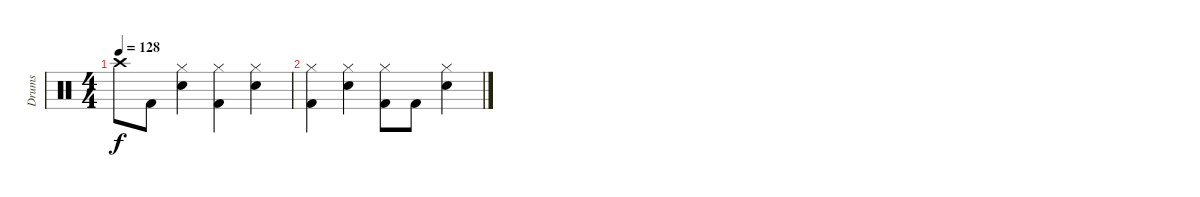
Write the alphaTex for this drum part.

\track ("Drums" "Drums") {instrument percussion}
\staff {score}
\articulation defaults
\ts (4 4)
\tempo 128
\clef neutral
\ks c "Crash high (hit)".8{dy f} "Kick (hit) 2".8
("Hi-Hat (closed)" "Electric Snare (hit)").4 ("Hi-Hat (closed)" "Kick (hit) 2").4 ("Hi-Hat (closed)" "Electric Snare (hit)").4 |
("Hi-Hat (closed)" "Kick (hit) 2").4 ("Hi-Hat (closed)" "Electric Snare (hit)").4 ("Hi-Hat (closed)" "Kick (hit) 2").8 "Kick (hit) 2".8 ("Hi-Hat (closed)" "Electric Snare (hit)").4
